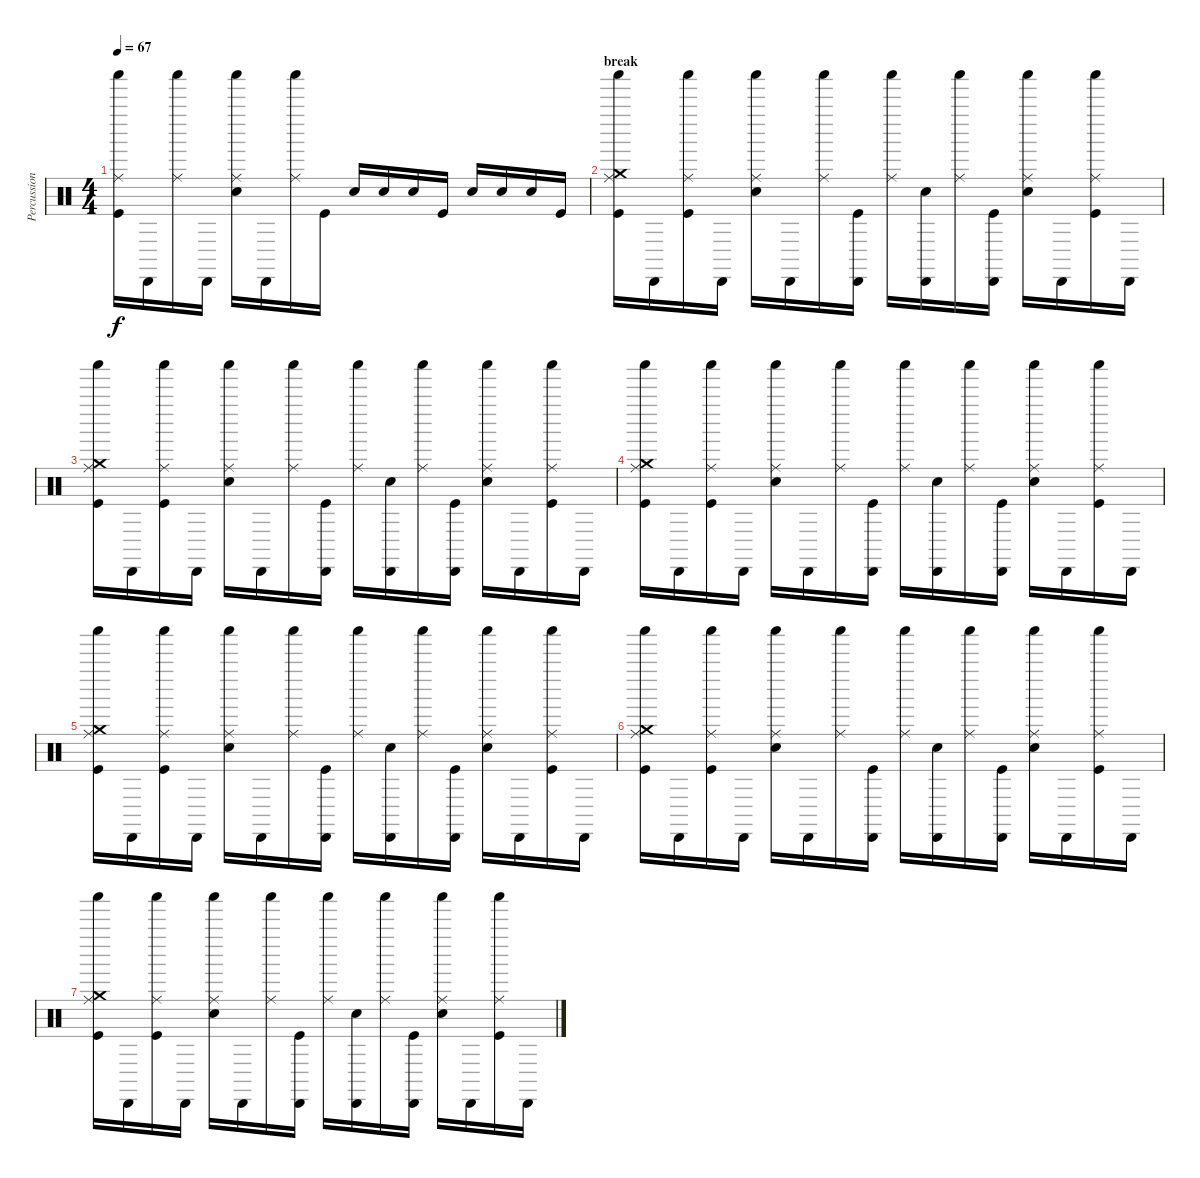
\track ("Percussions" "Percussion") {instrument percussion}
\staff {score}
\articulation defaults
\ts (4 4)
\tempo 67
\clef neutral
\ks c
("Shaker (hit)" "Ride (middle)" "Kick (hit)").16{dy f} "Cabasa (hit)".16 ("Shaker (hit)" "Ride (middle)").16 "Cabasa (hit)".16 ("Shaker (hit)" "Ride (middle)" "Snare (hit) 2").16 "Cabasa (hit)".16 ("Shaker (hit)" "Ride (middle)").16 "Kick (hit)".16 "Snare (hit) 2".16 "Electric Snare (hit)".16 "Electric Snare (hit)".16 "Kick (hit)".16 "Snare (hit) 2".16 "Electric Snare (hit)".16 "Electric Snare (hit)".16 "Kick (hit)".16 |
\section ("" "break")
("Ride (middle)" "Shaker (hit)" "Crash medium (hit)" "Kick (hit)").16 "Cabasa (hit)".16 ("Ride (middle)" "Shaker (hit)" "Kick (hit)").16 "Cabasa (hit)".16 ("Ride (middle)" "Shaker (hit)" "Snare (hit) 2").16 "Cabasa (hit)".16 ("Ride (middle)" "Shaker (hit)").16 ("Cabasa (hit)" "Kick (hit)").16 ("Ride (middle)" "Shaker (hit)").16 ("Cabasa (hit)" "Snare (hit) 2").16 ("Ride (middle)" "Shaker (hit)").16 ("Cabasa (hit)" "Kick (hit)").16 ("Ride (middle)" "Shaker (hit)" "Snare (hit) 2").16 "Cabasa (hit)".16 ("Ride (middle)" "Shaker (hit)" "Kick (hit)").16 "Cabasa (hit)".16 |
("Ride (middle)" "Shaker (hit)" "Crash medium (hit)" "Kick (hit)").16 "Cabasa (hit)".16 ("Ride (middle)" "Shaker (hit)" "Kick (hit)").16 "Cabasa (hit)".16 ("Ride (middle)" "Shaker (hit)" "Snare (hit) 2").16 "Cabasa (hit)".16 ("Ride (middle)" "Shaker (hit)").16 ("Cabasa (hit)" "Kick (hit)").16 ("Ride (middle)" "Shaker (hit)").16 ("Cabasa (hit)" "Snare (hit) 2").16 ("Ride (middle)" "Shaker (hit)").16 ("Cabasa (hit)" "Kick (hit)").16 ("Ride (middle)" "Shaker (hit)" "Snare (hit) 2").16 "Cabasa (hit)".16 ("Ride (middle)" "Shaker (hit)" "Kick (hit)").16 "Cabasa (hit)".16 |
("Ride (middle)" "Shaker (hit)" "Crash medium (hit)" "Kick (hit)").16 "Cabasa (hit)".16 ("Ride (middle)" "Shaker (hit)" "Kick (hit)").16 "Cabasa (hit)".16 ("Ride (middle)" "Shaker (hit)" "Snare (hit) 2").16 "Cabasa (hit)".16 ("Ride (middle)" "Shaker (hit)").16 ("Cabasa (hit)" "Kick (hit)").16 ("Ride (middle)" "Shaker (hit)").16 ("Cabasa (hit)" "Snare (hit) 2").16 ("Ride (middle)" "Shaker (hit)").16 ("Cabasa (hit)" "Kick (hit)").16 ("Ride (middle)" "Shaker (hit)" "Snare (hit) 2").16 "Cabasa (hit)".16 ("Ride (middle)" "Shaker (hit)" "Kick (hit)").16 "Cabasa (hit)".16 |
("Ride (middle)" "Shaker (hit)" "Crash medium (hit)" "Kick (hit)").16 "Cabasa (hit)".16 ("Ride (middle)" "Shaker (hit)" "Kick (hit)").16 "Cabasa (hit)".16 ("Ride (middle)" "Shaker (hit)" "Snare (hit) 2").16 "Cabasa (hit)".16 ("Ride (middle)" "Shaker (hit)").16 ("Cabasa (hit)" "Kick (hit)").16 ("Ride (middle)" "Shaker (hit)").16 ("Cabasa (hit)" "Snare (hit) 2").16 ("Ride (middle)" "Shaker (hit)").16 ("Cabasa (hit)" "Kick (hit)").16 ("Ride (middle)" "Shaker (hit)" "Snare (hit) 2").16 "Cabasa (hit)".16 ("Ride (middle)" "Shaker (hit)" "Kick (hit)").16 "Cabasa (hit)".16 |
("Ride (middle)" "Shaker (hit)" "Crash medium (hit)" "Kick (hit)").16 "Cabasa (hit)".16 ("Ride (middle)" "Shaker (hit)" "Kick (hit)").16 "Cabasa (hit)".16 ("Ride (middle)" "Shaker (hit)" "Snare (hit) 2").16 "Cabasa (hit)".16 ("Ride (middle)" "Shaker (hit)").16 ("Cabasa (hit)" "Kick (hit)").16 ("Ride (middle)" "Shaker (hit)").16 ("Cabasa (hit)" "Snare (hit) 2").16 ("Ride (middle)" "Shaker (hit)").16 ("Cabasa (hit)" "Kick (hit)").16 ("Ride (middle)" "Shaker (hit)" "Snare (hit) 2").16 "Cabasa (hit)".16 ("Ride (middle)" "Shaker (hit)" "Kick (hit)").16 "Cabasa (hit)".16 |
("Ride (middle)" "Shaker (hit)" "Crash medium (hit)" "Kick (hit)").16 "Cabasa (hit)".16 ("Ride (middle)" "Shaker (hit)" "Kick (hit)").16 "Cabasa (hit)".16 ("Ride (middle)" "Shaker (hit)" "Snare (hit) 2").16 "Cabasa (hit)".16 ("Ride (middle)" "Shaker (hit)").16 ("Cabasa (hit)" "Kick (hit)").16 ("Ride (middle)" "Shaker (hit)").16 ("Cabasa (hit)" "Snare (hit) 2").16 ("Ride (middle)" "Shaker (hit)").16 ("Cabasa (hit)" "Kick (hit)").16 ("Ride (middle)" "Shaker (hit)" "Snare (hit) 2").16 "Cabasa (hit)".16 ("Ride (middle)" "Shaker (hit)" "Kick (hit)").16 "Cabasa (hit)".16
